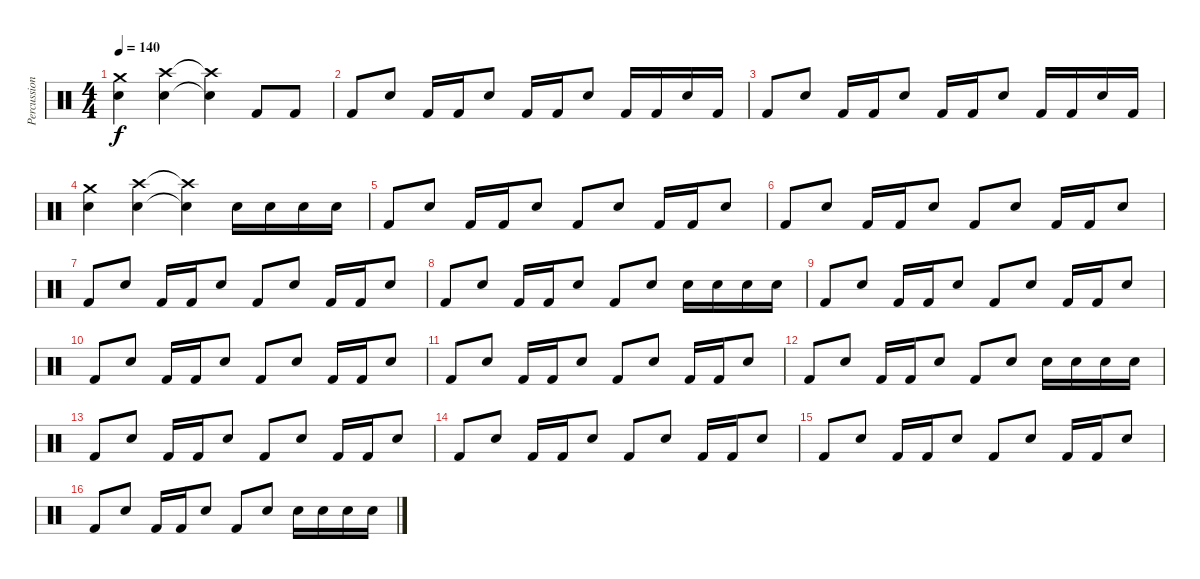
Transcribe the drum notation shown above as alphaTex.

\track ("Percussion" "Percussion") {instrument percussion}
\staff {score}
\articulation defaults
\ts (4 4)
\tempo 140
\clef neutral
\ks c
("Snare (hit) 2" "Crash medium (hit)").4{dy f} ("Snare (hit) 2" "Crash high (hit)").4 ("Snare (hit) 2"{t} "Crash high (hit)"{t}).4 "Kick (hit) 2".8 "Kick (hit) 2".8 |
"Kick (hit) 2".8 "Snare (hit) 2".8 "Kick (hit) 2".16 "Kick (hit) 2".16 "Snare (hit) 2".8 "Kick (hit) 2".16 "Kick (hit) 2".16 "Snare (hit) 2".8 "Kick (hit) 2".16 "Kick (hit) 2".16 "Snare (hit) 2".16 "Kick (hit) 2".16 |
"Kick (hit) 2".8 "Snare (hit) 2".8 "Kick (hit) 2".16 "Kick (hit) 2".16 "Snare (hit) 2".8 "Kick (hit) 2".16 "Kick (hit) 2".16 "Snare (hit) 2".8 "Kick (hit) 2".16 "Kick (hit) 2".16 "Snare (hit) 2".16 "Kick (hit) 2".16 |
("Snare (hit) 2" "Crash medium (hit)").4 ("Snare (hit) 2" "Crash high (hit)").4 ("Snare (hit) 2"{t} "Crash high (hit)"{t}).4 "Snare (hit) 2".16 "Snare (hit) 2".16 "Snare (hit) 2".16 "Snare (hit) 2".16 |
"Kick (hit) 2".8 "Snare (hit) 2".8 "Kick (hit) 2".16 "Kick (hit) 2".16 "Snare (hit) 2".8 "Kick (hit) 2".8 "Snare (hit) 2".8 "Kick (hit) 2".16 "Kick (hit) 2".16 "Snare (hit) 2".8 |
"Kick (hit) 2".8 "Snare (hit) 2".8 "Kick (hit) 2".16 "Kick (hit) 2".16 "Snare (hit) 2".8 "Kick (hit) 2".8 "Snare (hit) 2".8 "Kick (hit) 2".16 "Kick (hit) 2".16 "Snare (hit) 2".8 |
"Kick (hit) 2".8 "Snare (hit) 2".8 "Kick (hit) 2".16 "Kick (hit) 2".16 "Snare (hit) 2".8 "Kick (hit) 2".8 "Snare (hit) 2".8 "Kick (hit) 2".16 "Kick (hit) 2".16 "Snare (hit) 2".8 |
"Kick (hit) 2".8 "Snare (hit) 2".8 "Kick (hit) 2".16 "Kick (hit) 2".16 "Snare (hit) 2".8 "Kick (hit) 2".8 "Snare (hit) 2".8 "Snare (hit) 2".16 "Snare (hit) 2".16 "Snare (hit) 2".16 "Snare (hit) 2".16 |
"Kick (hit) 2".8 "Snare (hit) 2".8 "Kick (hit) 2".16 "Kick (hit) 2".16 "Snare (hit) 2".8 "Kick (hit) 2".8 "Snare (hit) 2".8 "Kick (hit) 2".16 "Kick (hit) 2".16 "Snare (hit) 2".8 |
"Kick (hit) 2".8 "Snare (hit) 2".8 "Kick (hit) 2".16 "Kick (hit) 2".16 "Snare (hit) 2".8 "Kick (hit) 2".8 "Snare (hit) 2".8 "Kick (hit) 2".16 "Kick (hit) 2".16 "Snare (hit) 2".8 |
"Kick (hit) 2".8 "Snare (hit) 2".8 "Kick (hit) 2".16 "Kick (hit) 2".16 "Snare (hit) 2".8 "Kick (hit) 2".8 "Snare (hit) 2".8 "Kick (hit) 2".16 "Kick (hit) 2".16 "Snare (hit) 2".8 |
"Kick (hit) 2".8 "Snare (hit) 2".8 "Kick (hit) 2".16 "Kick (hit) 2".16 "Snare (hit) 2".8 "Kick (hit) 2".8 "Snare (hit) 2".8 "Snare (hit) 2".16 "Snare (hit) 2".16 "Snare (hit) 2".16 "Snare (hit) 2".16 |
"Kick (hit) 2".8 "Snare (hit) 2".8 "Kick (hit) 2".16 "Kick (hit) 2".16 "Snare (hit) 2".8 "Kick (hit) 2".8 "Snare (hit) 2".8 "Kick (hit) 2".16 "Kick (hit) 2".16 "Snare (hit) 2".8 |
"Kick (hit) 2".8 "Snare (hit) 2".8 "Kick (hit) 2".16 "Kick (hit) 2".16 "Snare (hit) 2".8 "Kick (hit) 2".8 "Snare (hit) 2".8 "Kick (hit) 2".16 "Kick (hit) 2".16 "Snare (hit) 2".8 |
"Kick (hit) 2".8 "Snare (hit) 2".8 "Kick (hit) 2".16 "Kick (hit) 2".16 "Snare (hit) 2".8 "Kick (hit) 2".8 "Snare (hit) 2".8 "Kick (hit) 2".16 "Kick (hit) 2".16 "Snare (hit) 2".8 |
"Kick (hit) 2".8 "Snare (hit) 2".8 "Kick (hit) 2".16 "Kick (hit) 2".16 "Snare (hit) 2".8 "Kick (hit) 2".8 "Snare (hit) 2".8 "Snare (hit) 2".16 "Snare (hit) 2".16 "Snare (hit) 2".16 "Snare (hit) 2".16
